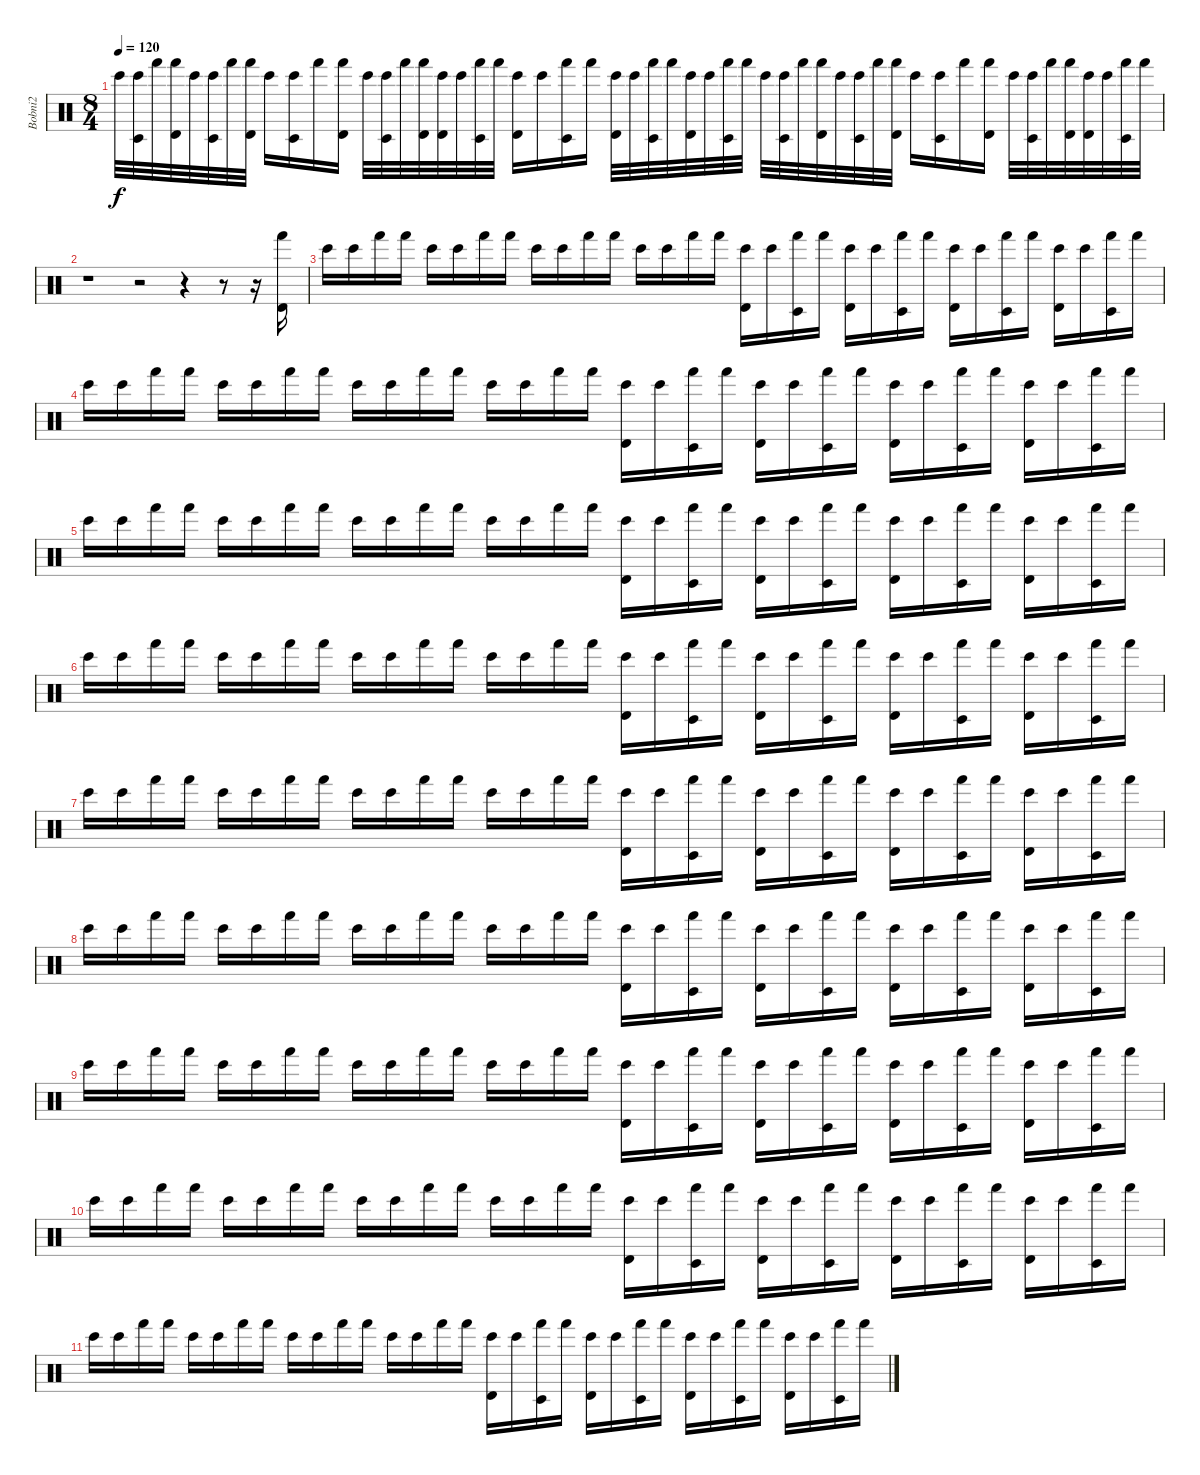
\track ("Bobni2" "Bobni2") {instrument percussion}
\staff {score}
\articulation defaults
\ts (8 4)
\tempo 120
\clef neutral
\ks c "Bongo High (hit)".32{dy f}
("Bongo High (hit)" "Timbale low (hit)").32 "Hand (hit)".32 ("Hand (hit)" "Timbale high (hit)").32 "Bongo High (hit)".32 ("Bongo High (hit)" "Timbale low (hit)").32 "Hand (hit)".32 ("Hand (hit)" "Timbale high (hit)").32 "Bongo High (hit)".16 ("Bongo High (hit)" "Timbale low (hit)").16 "Hand (hit)".16 ("Hand (hit)" "Timbale high (hit)").16 "Bongo High (hit)".32 ("Bongo High (hit)" "Timbale low (hit)").32 "Hand (hit)".32 ("Hand (hit)" "Timbale high (hit)").32 ("Bongo High (hit)" "Timbale high (hit)").32 "Bongo High (hit)".32 ("Hand (hit)" "Timbale low (hit)").32 "Hand (hit)".32 ("Bongo High (hit)" "Timbale high (hit)").16 "Bongo High (hit)".16 ("Hand (hit)" "Timbale low (hit)").16 "Hand (hit)".16 ("Bongo High (hit)" "Timbale high (hit)").32 "Bongo High (hit)".32 ("Hand (hit)" "Timbale low (hit)").32 "Hand (hit)".32 ("Bongo High (hit)" "Timbale high (hit)").32 "Bongo High (hit)".32 ("Hand (hit)" "Timbale low (hit)").32 "Hand (hit)".32 "Bongo High (hit)".32 ("Bongo High (hit)" "Timbale low (hit)").32 "Hand (hit)".32 ("Hand (hit)" "Timbale high (hit)").32 "Bongo High (hit)".32 ("Bongo High (hit)" "Timbale low (hit)").32 "Hand (hit)".32 ("Hand (hit)" "Timbale high (hit)").32 "Bongo High (hit)".16 ("Bongo High (hit)" "Timbale low (hit)").16 "Hand (hit)".16 ("Hand (hit)" "Timbale high (hit)").16 "Bongo High (hit)".32 ("Bongo High (hit)" "Timbale low (hit)").32 "Hand (hit)".32 ("Hand (hit)" "Timbale high (hit)").32 ("Bongo High (hit)" "Timbale high (hit)").32 "Bongo High (hit)".32 ("Hand (hit)" "Timbale low (hit)").32 "Hand (hit)".32 |
r.1 r.2 r.4 r.8 r.16 ("Timbale high (hit)" "Hand (hit)").16 |
"Bongo High (hit)".16 "Bongo High (hit)".16 "Hand (hit)".16 "Hand (hit)".16 "Bongo High (hit)".16 "Bongo High (hit)".16 "Hand (hit)".16 "Hand (hit)".16 "Bongo High (hit)".16 "Bongo High (hit)".16 "Hand (hit)".16 "Hand (hit)".16 "Bongo High (hit)".16 "Bongo High (hit)".16 "Hand (hit)".16 "Hand (hit)".16 ("Bongo High (hit)" "Timbale high (hit)").16 "Bongo High (hit)".16 ("Hand (hit)" "Timbale low (hit)").16 "Hand (hit)".16 ("Bongo High (hit)" "Timbale high (hit)").16 "Bongo High (hit)".16 ("Hand (hit)" "Timbale low (hit)").16 "Hand (hit)".16 ("Bongo High (hit)" "Timbale high (hit)").16 "Bongo High (hit)".16 ("Hand (hit)" "Timbale low (hit)").16 "Hand (hit)".16 ("Bongo High (hit)" "Timbale high (hit)").16 "Bongo High (hit)".16 ("Hand (hit)" "Timbale low (hit)").16 "Hand (hit)".16 |
"Bongo High (hit)".16 "Bongo High (hit)".16 "Hand (hit)".16 "Hand (hit)".16 "Bongo High (hit)".16 "Bongo High (hit)".16 "Hand (hit)".16 "Hand (hit)".16 "Bongo High (hit)".16 "Bongo High (hit)".16 "Hand (hit)".16 "Hand (hit)".16 "Bongo High (hit)".16 "Bongo High (hit)".16 "Hand (hit)".16 "Hand (hit)".16 ("Bongo High (hit)" "Timbale high (hit)").16 "Bongo High (hit)".16 ("Hand (hit)" "Timbale low (hit)").16 "Hand (hit)".16 ("Bongo High (hit)" "Timbale high (hit)").16 "Bongo High (hit)".16 ("Hand (hit)" "Timbale low (hit)").16 "Hand (hit)".16 ("Bongo High (hit)" "Timbale high (hit)").16 "Bongo High (hit)".16 ("Hand (hit)" "Timbale low (hit)").16 "Hand (hit)".16 ("Bongo High (hit)" "Timbale high (hit)").16 "Bongo High (hit)".16 ("Hand (hit)" "Timbale low (hit)").16 "Hand (hit)".16 |
"Bongo High (hit)".16 "Bongo High (hit)".16 "Hand (hit)".16 "Hand (hit)".16 "Bongo High (hit)".16 "Bongo High (hit)".16 "Hand (hit)".16 "Hand (hit)".16 "Bongo High (hit)".16 "Bongo High (hit)".16 "Hand (hit)".16 "Hand (hit)".16 "Bongo High (hit)".16 "Bongo High (hit)".16 "Hand (hit)".16 "Hand (hit)".16 ("Bongo High (hit)" "Timbale high (hit)").16 "Bongo High (hit)".16 ("Hand (hit)" "Timbale low (hit)").16 "Hand (hit)".16 ("Bongo High (hit)" "Timbale high (hit)").16 "Bongo High (hit)".16 ("Hand (hit)" "Timbale low (hit)").16 "Hand (hit)".16 ("Bongo High (hit)" "Timbale high (hit)").16 "Bongo High (hit)".16 ("Hand (hit)" "Timbale low (hit)").16 "Hand (hit)".16 ("Bongo High (hit)" "Timbale high (hit)").16 "Bongo High (hit)".16 ("Hand (hit)" "Timbale low (hit)").16 "Hand (hit)".16 |
"Bongo High (hit)".16 "Bongo High (hit)".16 "Hand (hit)".16 "Hand (hit)".16 "Bongo High (hit)".16 "Bongo High (hit)".16 "Hand (hit)".16 "Hand (hit)".16 "Bongo High (hit)".16 "Bongo High (hit)".16 "Hand (hit)".16 "Hand (hit)".16 "Bongo High (hit)".16 "Bongo High (hit)".16 "Hand (hit)".16 "Hand (hit)".16 ("Bongo High (hit)" "Timbale high (hit)").16 "Bongo High (hit)".16 ("Hand (hit)" "Timbale low (hit)").16 "Hand (hit)".16 ("Bongo High (hit)" "Timbale high (hit)").16 "Bongo High (hit)".16 ("Hand (hit)" "Timbale low (hit)").16 "Hand (hit)".16 ("Bongo High (hit)" "Timbale high (hit)").16 "Bongo High (hit)".16 ("Hand (hit)" "Timbale low (hit)").16 "Hand (hit)".16 ("Bongo High (hit)" "Timbale high (hit)").16 "Bongo High (hit)".16 ("Hand (hit)" "Timbale low (hit)").16 "Hand (hit)".16 |
"Bongo High (hit)".16 "Bongo High (hit)".16 "Hand (hit)".16 "Hand (hit)".16 "Bongo High (hit)".16 "Bongo High (hit)".16 "Hand (hit)".16 "Hand (hit)".16 "Bongo High (hit)".16 "Bongo High (hit)".16 "Hand (hit)".16 "Hand (hit)".16 "Bongo High (hit)".16 "Bongo High (hit)".16 "Hand (hit)".16 "Hand (hit)".16 ("Bongo High (hit)" "Timbale high (hit)").16 "Bongo High (hit)".16 ("Hand (hit)" "Timbale low (hit)").16 "Hand (hit)".16 ("Bongo High (hit)" "Timbale high (hit)").16 "Bongo High (hit)".16 ("Hand (hit)" "Timbale low (hit)").16 "Hand (hit)".16 ("Bongo High (hit)" "Timbale high (hit)").16 "Bongo High (hit)".16 ("Hand (hit)" "Timbale low (hit)").16 "Hand (hit)".16 ("Bongo High (hit)" "Timbale high (hit)").16 "Bongo High (hit)".16 ("Hand (hit)" "Timbale low (hit)").16 "Hand (hit)".16 |
"Bongo High (hit)".16 "Bongo High (hit)".16 "Hand (hit)".16 "Hand (hit)".16 "Bongo High (hit)".16 "Bongo High (hit)".16 "Hand (hit)".16 "Hand (hit)".16 "Bongo High (hit)".16 "Bongo High (hit)".16 "Hand (hit)".16 "Hand (hit)".16 "Bongo High (hit)".16 "Bongo High (hit)".16 "Hand (hit)".16 "Hand (hit)".16 ("Bongo High (hit)" "Timbale high (hit)").16 "Bongo High (hit)".16 ("Hand (hit)" "Timbale low (hit)").16 "Hand (hit)".16 ("Bongo High (hit)" "Timbale high (hit)").16 "Bongo High (hit)".16 ("Hand (hit)" "Timbale low (hit)").16 "Hand (hit)".16 ("Bongo High (hit)" "Timbale high (hit)").16 "Bongo High (hit)".16 ("Hand (hit)" "Timbale low (hit)").16 "Hand (hit)".16 ("Bongo High (hit)" "Timbale high (hit)").16 "Bongo High (hit)".16 ("Hand (hit)" "Timbale low (hit)").16 "Hand (hit)".16 |
"Bongo High (hit)".16 "Bongo High (hit)".16 "Hand (hit)".16 "Hand (hit)".16 "Bongo High (hit)".16 "Bongo High (hit)".16 "Hand (hit)".16 "Hand (hit)".16 "Bongo High (hit)".16 "Bongo High (hit)".16 "Hand (hit)".16 "Hand (hit)".16 "Bongo High (hit)".16 "Bongo High (hit)".16 "Hand (hit)".16 "Hand (hit)".16 ("Bongo High (hit)" "Timbale high (hit)").16 "Bongo High (hit)".16 ("Hand (hit)" "Timbale low (hit)").16 "Hand (hit)".16 ("Bongo High (hit)" "Timbale high (hit)").16 "Bongo High (hit)".16 ("Hand (hit)" "Timbale low (hit)").16 "Hand (hit)".16 ("Bongo High (hit)" "Timbale high (hit)").16 "Bongo High (hit)".16 ("Hand (hit)" "Timbale low (hit)").16 "Hand (hit)".16 ("Bongo High (hit)" "Timbale high (hit)").16 "Bongo High (hit)".16 ("Hand (hit)" "Timbale low (hit)").16 "Hand (hit)".16 |
"Bongo High (hit)".16 "Bongo High (hit)".16 "Hand (hit)".16 "Hand (hit)".16 "Bongo High (hit)".16 "Bongo High (hit)".16 "Hand (hit)".16 "Hand (hit)".16 "Bongo High (hit)".16 "Bongo High (hit)".16 "Hand (hit)".16 "Hand (hit)".16 "Bongo High (hit)".16 "Bongo High (hit)".16 "Hand (hit)".16 "Hand (hit)".16 ("Bongo High (hit)" "Timbale high (hit)").16 "Bongo High (hit)".16 ("Hand (hit)" "Timbale low (hit)").16 "Hand (hit)".16 ("Bongo High (hit)" "Timbale high (hit)").16 "Bongo High (hit)".16 ("Hand (hit)" "Timbale low (hit)").16 "Hand (hit)".16 ("Bongo High (hit)" "Timbale high (hit)").16 "Bongo High (hit)".16 ("Hand (hit)" "Timbale low (hit)").16 "Hand (hit)".16 ("Bongo High (hit)" "Timbale high (hit)").16 "Bongo High (hit)".16 ("Hand (hit)" "Timbale low (hit)").16 "Hand (hit)".16 |
"Bongo High (hit)".16{volume 8} "Bongo High (hit)".16 "Hand (hit)".16 "Hand (hit)".16 "Bongo High (hit)".16{volume 6} "Bongo High (hit)".16 "Hand (hit)".16 "Hand (hit)".16 "Bongo High (hit)".16 "Bongo High (hit)".16{volume 4} "Hand (hit)".16 "Hand (hit)".16 "Bongo High (hit)".16 "Bongo High (hit)".16 "Hand (hit)".16 "Hand (hit)".16{volume 2} ("Bongo High (hit)" "Timbale high (hit)").16 "Bongo High (hit)".16 ("Hand (hit)" "Timbale low (hit)").16 "Hand (hit)".16 ("Bongo High (hit)" "Timbale high (hit)").16 "Bongo High (hit)".16 ("Hand (hit)" "Timbale low (hit)").16 "Hand (hit)".16 ("Bongo High (hit)" "Timbale high (hit)").16{volume 0} "Bongo High (hit)".16 ("Hand (hit)" "Timbale low (hit)").16 "Hand (hit)".16 ("Bongo High (hit)" "Timbale high (hit)").16 "Bongo High (hit)".16 ("Hand (hit)" "Timbale low (hit)").16 "Hand (hit)".16
